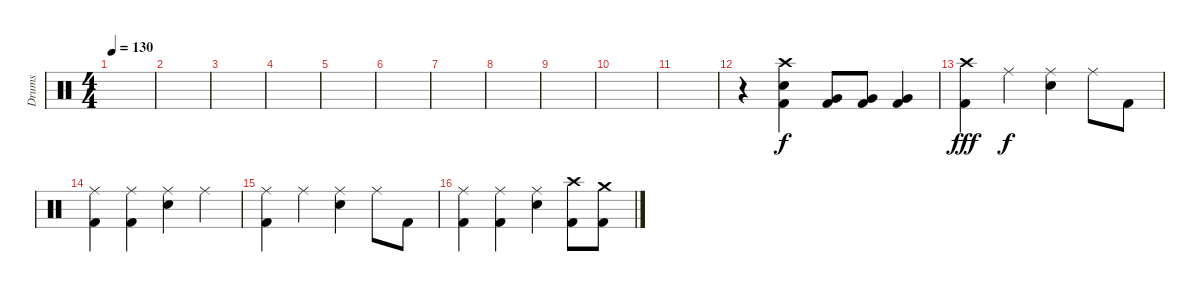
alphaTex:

\track ("Drums" "Drums") {instrument percussion}
\staff {score}
\articulation defaults
\ts (4 4)
\tempo 130
\clef neutral
\ks c
|
|
|
|
|
|
|
|
|
|
|
r.4 ("Crash high (hit)" "Electric Snare (hit)" "Kick (hit) 2").4 ("Very Low Tom (hit)" "Kick (hit) 2").8 ("Very Low Tom (hit)" "Kick (hit) 2").8 ("Very Low Tom (hit)" "Kick (hit) 2").4 |
("Crash high (hit)" "Kick (hit) 2").4{dy fff} "Ride (middle)".4{dy f} ("Ride (middle)" "Electric Snare (hit)").4 "Ride (middle)".8 "Kick (hit) 2".8 |
("Ride (middle)" "Kick (hit) 2").4 ("Ride (middle)" "Kick (hit) 2").4 ("Ride (middle)" "Electric Snare (hit)").4 "Ride (middle)".4 |
("Ride (middle)" "Kick (hit) 2").4 "Ride (middle)".4 ("Ride (middle)" "Electric Snare (hit)").4 "Ride (middle)".8 "Kick (hit) 2".8 |
("Ride (middle)" "Kick (hit) 2").4 ("Ride (middle)" "Kick (hit) 2").4 ("Ride (middle)" "Electric Snare (hit)").4 ("Crash high (hit)" "Kick (hit) 2").8 ("Crash medium (hit)" "Kick (hit) 2").8
